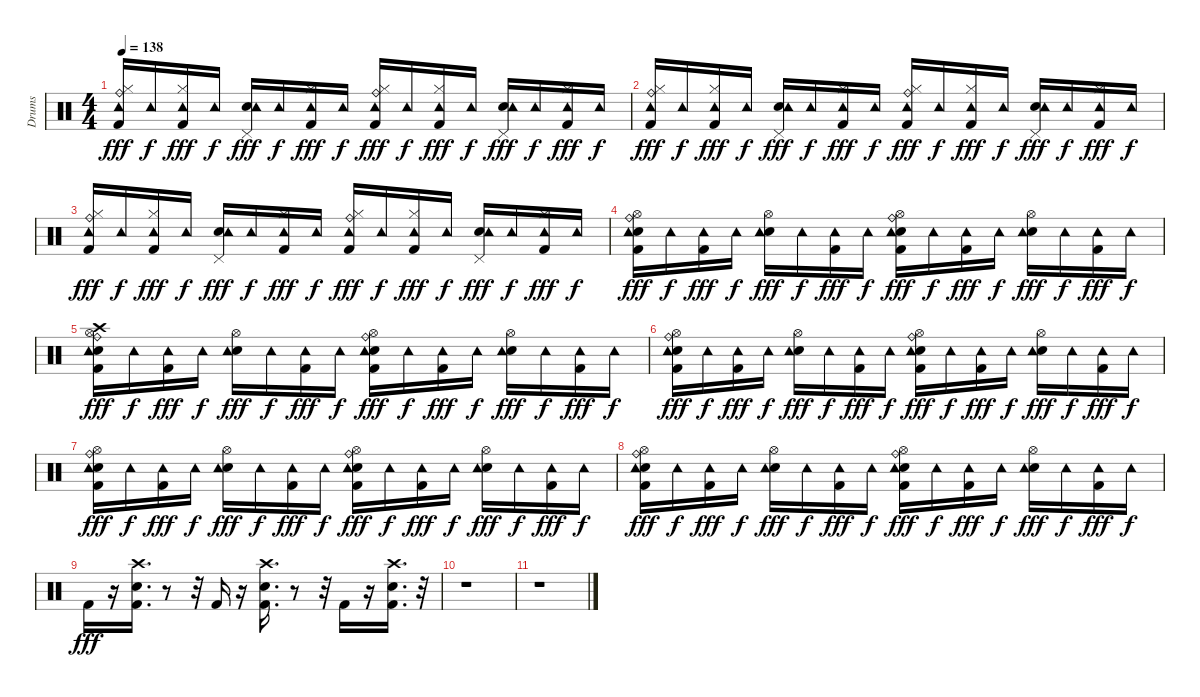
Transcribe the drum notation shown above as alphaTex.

\track ("Drums" "Drums") {instrument percussion}
\staff {score}
\articulation defaults
\ts (4 4)
\tempo 138
\clef neutral
\ks c
("Kick (hit) 2" "Hi-Hat (closed)" "Ride (bell)" "Tambourine (hit)").16{dy fff} "Tambourine (hit)".16{dy f} ("Kick (hit) 2" "Hi-Hat (closed)" "Tambourine (hit)").16{dy fff} "Tambourine (hit)".16{dy f} ("Snare (hit) 2" "Pedal Hi-Hat (hit)" "Tambourine (hit)").16{dy fff} "Tambourine (hit)".16{dy f} ("Kick (hit) 2" "Hi-Hat (closed)" "Tambourine (hit)").16{dy fff} "Tambourine (hit)".16{dy f} ("Kick (hit) 2" "Hi-Hat (closed)" "Ride (bell)" "Tambourine (hit)").16{dy fff} "Tambourine (hit)".16{dy f} ("Kick (hit) 2" "Hi-Hat (closed)" "Tambourine (hit)").16{dy fff} "Tambourine (hit)".16{dy f} ("Snare (hit) 2" "Pedal Hi-Hat (hit)" "Tambourine (hit)").16{dy fff} "Tambourine (hit)".16{dy f} ("Kick (hit) 2" "Hi-Hat (closed)" "Tambourine (hit)").16{dy fff} "Tambourine (hit)".16{dy f} |
("Kick (hit) 2" "Hi-Hat (closed)" "Ride (bell)" "Tambourine (hit)").16{dy fff} "Tambourine (hit)".16{dy f} ("Kick (hit) 2" "Hi-Hat (closed)" "Tambourine (hit)").16{dy fff} "Tambourine (hit)".16{dy f} ("Snare (hit) 2" "Pedal Hi-Hat (hit)" "Tambourine (hit)").16{dy fff} "Tambourine (hit)".16{dy f} ("Kick (hit) 2" "Hi-Hat (closed)" "Tambourine (hit)").16{dy fff} "Tambourine (hit)".16{dy f} ("Kick (hit) 2" "Hi-Hat (closed)" "Ride (bell)" "Tambourine (hit)").16{dy fff} "Tambourine (hit)".16{dy f} ("Kick (hit) 2" "Hi-Hat (closed)" "Tambourine (hit)").16{dy fff} "Tambourine (hit)".16{dy f} ("Snare (hit) 2" "Pedal Hi-Hat (hit)" "Tambourine (hit)").16{dy fff} "Tambourine (hit)".16{dy f} ("Kick (hit) 2" "Hi-Hat (closed)" "Tambourine (hit)").16{dy fff} "Tambourine (hit)".16{dy f} |
("Kick (hit) 2" "Hi-Hat (closed)" "Ride (bell)" "Tambourine (hit)").16{dy fff} "Tambourine (hit)".16{dy f} ("Kick (hit) 2" "Hi-Hat (closed)" "Tambourine (hit)").16{dy fff} "Tambourine (hit)".16{dy f} ("Snare (hit) 2" "Pedal Hi-Hat (hit)" "Tambourine (hit)").16{dy fff} "Tambourine (hit)".16{dy f} ("Kick (hit) 2" "Hi-Hat (closed)" "Tambourine (hit)").16{dy fff} "Tambourine (hit)".16{dy f} ("Kick (hit) 2" "Hi-Hat (closed)" "Ride (bell)" "Tambourine (hit)").16{dy fff} "Tambourine (hit)".16{dy f} ("Kick (hit) 2" "Hi-Hat (closed)" "Tambourine (hit)").16{dy fff} "Tambourine (hit)".16{dy f} ("Snare (hit) 2" "Pedal Hi-Hat (hit)" "Tambourine (hit)").16{dy fff} "Tambourine (hit)".16{dy f} ("Kick (hit) 2" "Hi-Hat (closed)" "Tambourine (hit)").16{dy fff} "Tambourine (hit)".16{dy f} |
("Kick (hit) 2" "Snare (hit) 2" "Hi-Hat (open)" "Ride (bell)" "Tambourine (hit)").16{dy fff} "Tambourine (hit)".16{dy f} ("Kick (hit) 2" "Tambourine (hit)").16{dy fff} "Tambourine (hit)".16{dy f} ("Snare (hit) 2" "Hi-Hat (open)" "Tambourine (hit)").16{dy fff} "Tambourine (hit)".16{dy f} ("Kick (hit) 2" "Tambourine (hit)").16{dy fff} "Tambourine (hit)".16{dy f} ("Kick (hit) 2" "Snare (hit) 2" "Hi-Hat (open)" "Ride (bell)" "Tambourine (hit)").16{dy fff} "Tambourine (hit)".16{dy f} ("Kick (hit) 2" "Tambourine (hit)").16{dy fff} "Tambourine (hit)".16{dy f} ("Snare (hit) 2" "Hi-Hat (open)" "Tambourine (hit)").16{dy fff} "Tambourine (hit)".16{dy f} ("Kick (hit) 2" "Tambourine (hit)").16{dy fff} "Tambourine (hit)".16{dy f} |
("Kick (hit) 2" "Snare (hit) 2" "Hi-Hat (open)" "Crash high (hit)" "Ride (bell)" "Tambourine (hit)").16{dy fff} "Tambourine (hit)".16{dy f} ("Kick (hit) 2" "Tambourine (hit)").16{dy fff} "Tambourine (hit)".16{dy f} ("Snare (hit) 2" "Hi-Hat (open)" "Tambourine (hit)").16{dy fff} "Tambourine (hit)".16{dy f} ("Kick (hit) 2" "Tambourine (hit)").16{dy fff} "Tambourine (hit)".16{dy f} ("Kick (hit) 2" "Snare (hit) 2" "Hi-Hat (open)" "Ride (bell)" "Tambourine (hit)").16{dy fff} "Tambourine (hit)".16{dy f} ("Kick (hit) 2" "Tambourine (hit)").16{dy fff} "Tambourine (hit)".16{dy f} ("Snare (hit) 2" "Hi-Hat (open)" "Tambourine (hit)").16{dy fff} "Tambourine (hit)".16{dy f} ("Kick (hit) 2" "Tambourine (hit)").16{dy fff} "Tambourine (hit)".16{dy f} |
("Kick (hit) 2" "Snare (hit) 2" "Hi-Hat (open)" "Ride (bell)" "Tambourine (hit)").16{dy fff} "Tambourine (hit)".16{dy f} ("Kick (hit) 2" "Tambourine (hit)").16{dy fff} "Tambourine (hit)".16{dy f} ("Snare (hit) 2" "Hi-Hat (open)" "Tambourine (hit)").16{dy fff} "Tambourine (hit)".16{dy f} ("Kick (hit) 2" "Tambourine (hit)").16{dy fff} "Tambourine (hit)".16{dy f} ("Kick (hit) 2" "Snare (hit) 2" "Hi-Hat (open)" "Ride (bell)" "Tambourine (hit)").16{dy fff} "Tambourine (hit)".16{dy f} ("Kick (hit) 2" "Tambourine (hit)").16{dy fff} "Tambourine (hit)".16{dy f} ("Snare (hit) 2" "Hi-Hat (open)" "Tambourine (hit)").16{dy fff} "Tambourine (hit)".16{dy f} ("Kick (hit) 2" "Tambourine (hit)").16{dy fff} "Tambourine (hit)".16{dy f} |
("Kick (hit) 2" "Snare (hit) 2" "Hi-Hat (open)" "Ride (bell)" "Tambourine (hit)").16{dy fff} "Tambourine (hit)".16{dy f} ("Kick (hit) 2" "Tambourine (hit)").16{dy fff} "Tambourine (hit)".16{dy f} ("Snare (hit) 2" "Hi-Hat (open)" "Tambourine (hit)").16{dy fff} "Tambourine (hit)".16{dy f} ("Kick (hit) 2" "Tambourine (hit)").16{dy fff} "Tambourine (hit)".16{dy f} ("Kick (hit) 2" "Snare (hit) 2" "Hi-Hat (open)" "Ride (bell)" "Tambourine (hit)").16{dy fff} "Tambourine (hit)".16{dy f} ("Kick (hit) 2" "Tambourine (hit)").16{dy fff} "Tambourine (hit)".16{dy f} ("Snare (hit) 2" "Hi-Hat (open)" "Tambourine (hit)").16{dy fff} "Tambourine (hit)".16{dy f} ("Kick (hit) 2" "Tambourine (hit)").16{dy fff} "Tambourine (hit)".16{dy f} |
("Kick (hit) 2" "Snare (hit) 2" "Hi-Hat (open)" "Ride (bell)" "Tambourine (hit)").16{dy fff} "Tambourine (hit)".16{dy f} ("Kick (hit) 2" "Tambourine (hit)").16{dy fff} "Tambourine (hit)".16{dy f} ("Snare (hit) 2" "Hi-Hat (open)" "Tambourine (hit)").16{dy fff} "Tambourine (hit)".16{dy f} ("Kick (hit) 2" "Tambourine (hit)").16{dy fff} "Tambourine (hit)".16{dy f} ("Kick (hit) 2" "Snare (hit) 2" "Hi-Hat (open)" "Ride (bell)" "Tambourine (hit)").16{dy fff} "Tambourine (hit)".16{dy f} ("Kick (hit) 2" "Tambourine (hit)").16{dy fff} "Tambourine (hit)".16{dy f} ("Snare (hit) 2" "Hi-Hat (open)" "Tambourine (hit)").16{dy fff} "Tambourine (hit)".16{dy f} ("Kick (hit) 2" "Tambourine (hit)").16{dy fff} "Tambourine (hit)".16{dy f} |
"Kick (hit) 2".16{dy fff} r.16 ("Kick (hit) 2" "Snare (hit) 2" "Crash high (hit)").16{d} r.8 r.32 "Kick (hit) 2".16 r.16 ("Kick (hit) 2" "Snare (hit) 2" "Crash high (hit)").16{d} r.8 r.32 "Kick (hit) 2".16 r.16 ("Kick (hit) 2" "Snare (hit) 2" "Crash high (hit)").16{d} r.32 |
r.1 |
r.1
